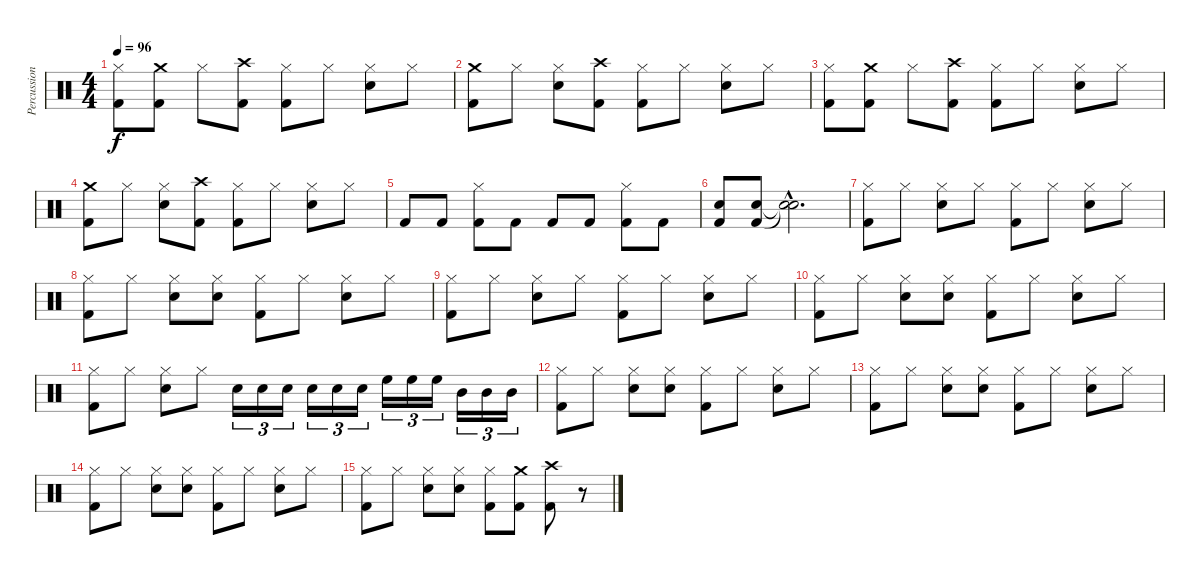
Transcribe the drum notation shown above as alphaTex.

\track ("Percussion" "Percussion") {instrument percussion}
\staff {score}
\articulation defaults
\ts (4 4)
\tempo 96
\clef neutral
\ks c
("Kick (hit) 2" "Hi-Hat (closed)").8{dy f} ("Crash medium (hit)" "Kick (hit) 2").8 "Hi-Hat (closed)".8 ("Crash high (hit)" "Kick (hit) 2").8 ("Hi-Hat (closed)" "Kick (hit) 2").8 "Hi-Hat (closed)".8 ("Hi-Hat (closed)" "Snare (hit) 2").8 "Hi-Hat (closed)".8 |
("Crash medium (hit)" "Kick (hit) 2").8 "Hi-Hat (closed)".8 ("Hi-Hat (closed)" "Snare (hit) 2").8 ("Crash high (hit)" "Kick (hit) 2").8 ("Hi-Hat (closed)" "Kick (hit) 2").8 "Hi-Hat (closed)".8 ("Hi-Hat (closed)" "Snare (hit) 2").8 "Hi-Hat (closed)".8 |
("Kick (hit) 2" "Hi-Hat (closed)").8 ("Crash medium (hit)" "Kick (hit) 2").8 "Hi-Hat (closed)".8 ("Crash high (hit)" "Kick (hit) 2").8 ("Hi-Hat (closed)" "Kick (hit) 2").8 "Hi-Hat (closed)".8 ("Hi-Hat (closed)" "Snare (hit) 2").8 "Hi-Hat (closed)".8 |
("Crash medium (hit)" "Kick (hit) 2").8 "Hi-Hat (closed)".8 ("Hi-Hat (closed)" "Snare (hit) 2").8 ("Crash high (hit)" "Kick (hit) 2").8 ("Hi-Hat (closed)" "Kick (hit) 2").8 "Hi-Hat (closed)".8 ("Hi-Hat (closed)" "Snare (hit) 2").8 "Hi-Hat (closed)".8 |
"Kick (hit) 2".8 "Kick (hit) 2".8 ("Hi-Hat (closed)" "Kick (hit) 2").8 "Kick (hit) 2".8 "Kick (hit) 2".8 "Kick (hit) 2".8 ("Hi-Hat (closed)" "Kick (hit) 2").8 "Kick (hit) 2".8 |
("Snare (hit) 2" "Kick (hit) 2").8 ("Kick (hit) 2" "Snare (hit) 2").8 ("Snare (hit)"{hac t} "Snare (hit)"{hac t}).2{d} |
("Hi-Hat (closed)" "Kick (hit) 2").8 "Hi-Hat (closed)".8 ("Hi-Hat (closed)" "Snare (hit) 2").8 "Hi-Hat (closed)".8 ("Hi-Hat (closed)" "Kick (hit) 2").8 "Hi-Hat (closed)".8 ("Hi-Hat (closed)" "Snare (hit) 2").8 "Hi-Hat (closed)".8 |
("Hi-Hat (closed)" "Kick (hit) 2").8 "Hi-Hat (closed)".8 ("Hi-Hat (closed)" "Snare (hit) 2").8 ("Hi-Hat (closed)" "Snare (hit) 2").8 ("Hi-Hat (closed)" "Kick (hit) 2").8 "Hi-Hat (closed)".8 ("Hi-Hat (closed)" "Snare (hit) 2").8 "Hi-Hat (closed)".8 |
("Hi-Hat (closed)" "Kick (hit) 2").8 "Hi-Hat (closed)".8 ("Hi-Hat (closed)" "Snare (hit) 2").8 "Hi-Hat (closed)".8 ("Hi-Hat (closed)" "Kick (hit) 2").8 "Hi-Hat (closed)".8 ("Hi-Hat (closed)" "Snare (hit) 2").8 "Hi-Hat (closed)".8 |
("Hi-Hat (closed)" "Kick (hit) 2").8 "Hi-Hat (closed)".8 ("Hi-Hat (closed)" "Snare (hit) 2").8 ("Hi-Hat (closed)" "Snare (hit) 2").8 ("Hi-Hat (closed)" "Kick (hit) 2").8 "Hi-Hat (closed)".8 ("Hi-Hat (closed)" "Snare (hit) 2").8 "Hi-Hat (closed)".8 |
("Hi-Hat (closed)" "Kick (hit) 2").8 "Hi-Hat (closed)".8 ("Hi-Hat (closed)" "Snare (hit) 2").8 "Hi-Hat (closed)".8 "Snare (hit) 2".16{tu (3 2)} "Snare (hit) 2".16{tu (3 2)} "Snare (hit) 2".16{tu (3 2)} "Snare (hit) 2".16{tu (3 2)} "Snare (hit) 2".16{tu (3 2)} "Snare (hit) 2".16{tu (3 2)} "High Floor Tom (hit)".16{tu (3 2)} "High Floor Tom (hit)".16{tu (3 2)} "High Floor Tom (hit)".16{tu (3 2)} "Mid Tom (hit)".16{tu (3 2)} "Mid Tom (hit)".16{tu (3 2)} "Mid Tom (hit)".16{tu (3 2)} |
("Hi-Hat (closed)" "Kick (hit) 2").8 "Hi-Hat (closed)".8 ("Hi-Hat (closed)" "Snare (hit) 2").8 ("Hi-Hat (closed)" "Snare (hit) 2").8 ("Hi-Hat (closed)" "Kick (hit) 2").8 "Hi-Hat (closed)".8 ("Hi-Hat (closed)" "Snare (hit) 2").8 "Hi-Hat (closed)".8 |
("Hi-Hat (closed)" "Kick (hit) 2").8 "Hi-Hat (closed)".8 ("Hi-Hat (closed)" "Snare (hit) 2").8 ("Hi-Hat (closed)" "Snare (hit) 2").8 ("Hi-Hat (closed)" "Kick (hit) 2").8 "Hi-Hat (closed)".8 ("Hi-Hat (closed)" "Snare (hit) 2").8 "Hi-Hat (closed)".8 |
("Hi-Hat (closed)" "Kick (hit) 2").8 "Hi-Hat (closed)".8 ("Hi-Hat (closed)" "Snare (hit) 2").8 ("Hi-Hat (closed)" "Snare (hit) 2").8 ("Hi-Hat (closed)" "Kick (hit) 2").8 "Hi-Hat (closed)".8 ("Hi-Hat (closed)" "Snare (hit) 2").8 "Hi-Hat (closed)".8 |
("Hi-Hat (closed)" "Kick (hit) 2").8 "Hi-Hat (closed)".8 ("Hi-Hat (closed)" "Snare (hit) 2").8 ("Hi-Hat (closed)" "Snare (hit) 2").8 ("Hi-Hat (closed)" "Kick (hit) 2").8 ("Crash medium (hit)" "Kick (hit) 2").8 ("Crash high (hit)" "Kick (hit) 2").8 r.8
